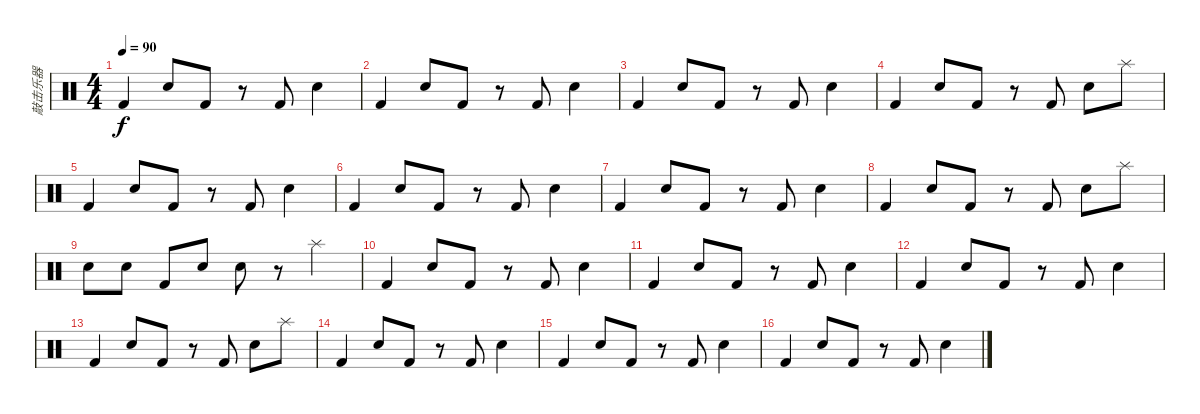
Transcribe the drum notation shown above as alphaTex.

\track ("敲击乐器" "敲击乐器") {instrument percussion}
\staff {score}
\articulation defaults
\ts (4 4)
\tempo 90
\clef neutral
\ks c "Kick (hit) 2".4{dy f} "Snare (hit) 2".8 "Kick (hit) 2".8
r.8 "Kick (hit) 2".8 "Snare (hit) 2".4 |
"Kick (hit) 2".4 "Snare (hit) 2".8 "Kick (hit) 2".8 r.8 "Kick (hit) 2".8 "Snare (hit) 2".4 |
"Kick (hit) 2".4 "Snare (hit) 2".8 "Kick (hit) 2".8 r.8 "Kick (hit) 2".8 "Snare (hit) 2".4 |
"Kick (hit) 2".4 "Snare (hit) 2".8 "Kick (hit) 2".8 r.8 "Kick (hit) 2".8 "Snare (hit) 2".8 "Splash (hit)".8 |
"Kick (hit) 2".4 "Snare (hit) 2".8 "Kick (hit) 2".8 r.8 "Kick (hit) 2".8 "Snare (hit) 2".4 |
"Kick (hit) 2".4 "Snare (hit) 2".8 "Kick (hit) 2".8 r.8 "Kick (hit) 2".8 "Snare (hit) 2".4 |
"Kick (hit) 2".4 "Snare (hit) 2".8 "Kick (hit) 2".8 r.8 "Kick (hit) 2".8 "Snare (hit) 2".4 |
"Kick (hit) 2".4 "Snare (hit) 2".8 "Kick (hit) 2".8 r.8 "Kick (hit) 2".8 "Snare (hit) 2".8 "Splash (hit)".8 |
"Snare (hit) 2".8 "Snare (hit) 2".8 "Kick (hit) 2".8 "Snare (hit) 2".8 "Snare (hit) 2".8 r.8 "Splash (hit)".4 |
"Kick (hit) 2".4 "Snare (hit) 2".8 "Kick (hit) 2".8 r.8 "Kick (hit) 2".8 "Snare (hit) 2".4 |
"Kick (hit) 2".4 "Snare (hit) 2".8 "Kick (hit) 2".8 r.8 "Kick (hit) 2".8 "Snare (hit) 2".4 |
"Kick (hit) 2".4 "Snare (hit) 2".8 "Kick (hit) 2".8 r.8 "Kick (hit) 2".8 "Snare (hit) 2".4 |
"Kick (hit) 2".4 "Snare (hit) 2".8 "Kick (hit) 2".8 r.8 "Kick (hit) 2".8 "Snare (hit) 2".8 "Splash (hit)".8 |
"Kick (hit) 2".4 "Snare (hit) 2".8 "Kick (hit) 2".8 r.8 "Kick (hit) 2".8 "Snare (hit) 2".4 |
"Kick (hit) 2".4 "Snare (hit) 2".8 "Kick (hit) 2".8 r.8 "Kick (hit) 2".8 "Snare (hit) 2".4 |
"Kick (hit) 2".4 "Snare (hit) 2".8 "Kick (hit) 2".8 r.8 "Kick (hit) 2".8 "Snare (hit) 2".4
